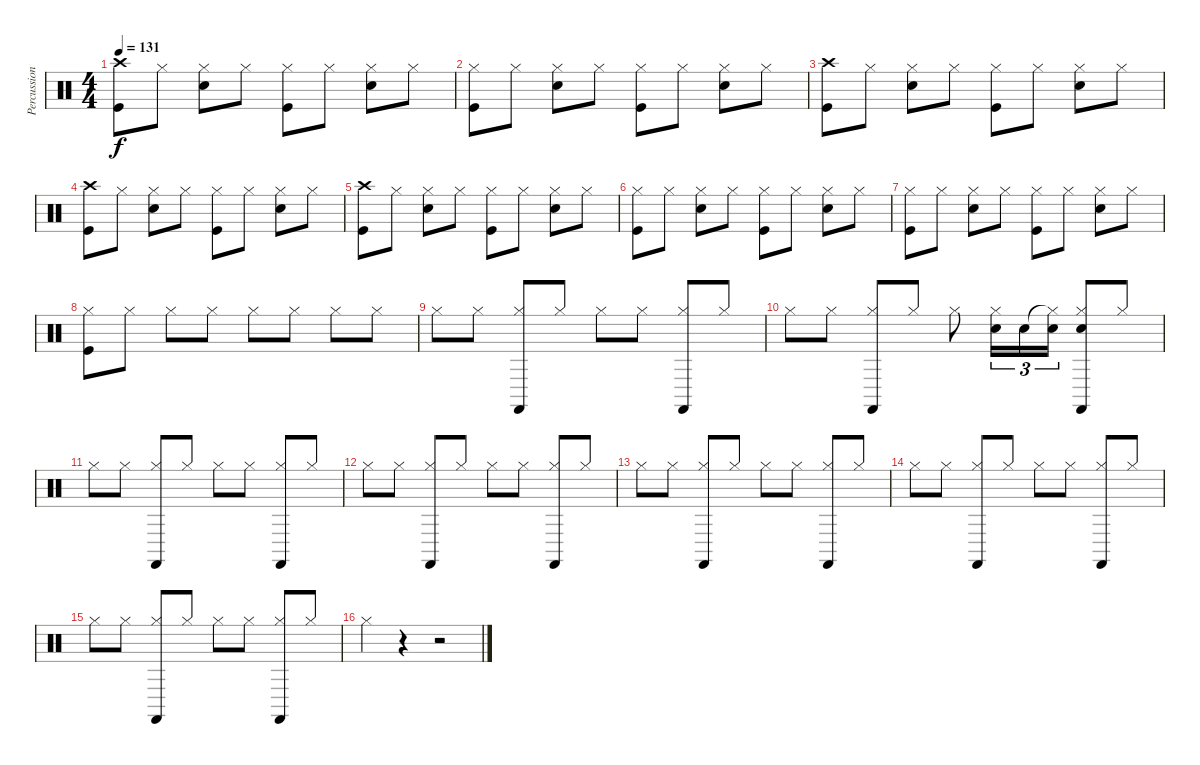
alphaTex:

\track ("Percussion" "Percussion") {instrument percussion}
\staff {score}
\articulation defaults
\ts (4 4)
\tempo 131
\clef neutral
\ks c
("Crash high (hit)" "Kick (hit)").8{dy f} "Hi-Hat (closed)".8 ("Hi-Hat (closed)" "Snare (hit) 2").8 "Hi-Hat (closed)".8 ("Hi-Hat (closed)" "Kick (hit)").8 "Hi-Hat (closed)".8 ("Hi-Hat (closed)" "Snare (hit) 2").8 "Hi-Hat (closed)".8 |
("Hi-Hat (closed)" "Kick (hit)").8 "Hi-Hat (closed)".8 ("Hi-Hat (closed)" "Snare (hit) 2").8 "Hi-Hat (closed)".8 ("Hi-Hat (closed)" "Kick (hit)").8 "Hi-Hat (closed)".8 ("Hi-Hat (closed)" "Snare (hit) 2").8 "Hi-Hat (closed)".8 |
("Crash high (hit)" "Kick (hit)").8 "Hi-Hat (closed)".8 ("Hi-Hat (closed)" "Snare (hit) 2").8 "Hi-Hat (closed)".8 ("Hi-Hat (closed)" "Kick (hit)").8 "Hi-Hat (closed)".8 ("Hi-Hat (closed)" "Snare (hit) 2").8 "Hi-Hat (closed)".8 |
("Crash high (hit)" "Kick (hit)").8 "Hi-Hat (closed)".8 ("Hi-Hat (closed)" "Snare (hit) 2").8 "Hi-Hat (closed)".8 ("Hi-Hat (closed)" "Kick (hit)").8 "Hi-Hat (closed)".8 ("Hi-Hat (closed)" "Snare (hit) 2").8 "Hi-Hat (closed)".8 |
("Crash high (hit)" "Kick (hit)").8 "Hi-Hat (closed)".8 ("Hi-Hat (closed)" "Snare (hit) 2").8 "Hi-Hat (closed)".8 ("Hi-Hat (closed)" "Kick (hit)").8 "Hi-Hat (closed)".8 ("Hi-Hat (closed)" "Snare (hit) 2").8 "Hi-Hat (closed)".8 |
("Hi-Hat (closed)" "Kick (hit)").8 "Hi-Hat (closed)".8 ("Hi-Hat (closed)" "Snare (hit) 2").8 "Hi-Hat (closed)".8 ("Hi-Hat (closed)" "Kick (hit)").8 "Hi-Hat (closed)".8 ("Hi-Hat (closed)" "Snare (hit) 2").8 "Hi-Hat (closed)".8 |
("Hi-Hat (closed)" "Kick (hit)").8 "Hi-Hat (closed)".8 ("Hi-Hat (closed)" "Snare (hit) 2").8 "Hi-Hat (closed)".8 ("Hi-Hat (closed)" "Kick (hit)").8 "Hi-Hat (closed)".8 ("Hi-Hat (closed)" "Snare (hit) 2").8 "Hi-Hat (closed)".8 |
("Hi-Hat (closed)" "Kick (hit)").8 "Hi-Hat (closed)".8 "Hi-Hat (closed)".8 "Hi-Hat (closed)".8 "Hi-Hat (closed)".8 "Hi-Hat (closed)".8 "Hi-Hat (closed)".8 "Hi-Hat (closed)".8 |
"Hi-Hat (closed)".8 "Hi-Hat (closed)".8 ("Hi-Hat (closed)" "Castanets (hit)").8 "Hi-Hat (closed)".8 "Hi-Hat (closed)".8 "Hi-Hat (closed)".8 ("Hi-Hat (closed)" "Castanets (hit)").8 "Hi-Hat (closed)".8 |
"Hi-Hat (closed)".8 "Hi-Hat (closed)".8 ("Hi-Hat (closed)" "Castanets (hit)").8 "Hi-Hat (closed)".8 "Hi-Hat (closed)".8 ("Hi-Hat (closed)" "Snare (hit) 2").16{tu (3 2)} "Snare (hit) 2".16{tu (3 2)} ("Hi-Hat (closed)"{t} "Snare (hit) 2").16{tu (3 2)} ("Hi-Hat (closed)" "Snare (hit) 2" "Castanets (hit)").8 "Hi-Hat (closed)".8 |
"Hi-Hat (closed)".8 "Hi-Hat (closed)".8 ("Hi-Hat (closed)" "Castanets (hit)").8 "Hi-Hat (closed)".8 "Hi-Hat (closed)".8 "Hi-Hat (closed)".8 ("Hi-Hat (closed)" "Castanets (hit)").8 "Hi-Hat (closed)".8 |
"Hi-Hat (closed)".8 "Hi-Hat (closed)".8 ("Hi-Hat (closed)" "Castanets (hit)").8 "Hi-Hat (closed)".8 "Hi-Hat (closed)".8 "Hi-Hat (closed)".8 ("Hi-Hat (closed)" "Castanets (hit)").8 "Hi-Hat (closed)".8 |
"Hi-Hat (closed)".8 "Hi-Hat (closed)".8 ("Hi-Hat (closed)" "Castanets (hit)").8 "Hi-Hat (closed)".8 "Hi-Hat (closed)".8 "Hi-Hat (closed)".8 ("Hi-Hat (closed)" "Castanets (hit)").8 "Hi-Hat (closed)".8 |
"Hi-Hat (closed)".8 "Hi-Hat (closed)".8 ("Hi-Hat (closed)" "Castanets (hit)").8 "Hi-Hat (closed)".8 "Hi-Hat (closed)".8 "Hi-Hat (closed)".8 ("Hi-Hat (closed)" "Castanets (hit)").8 "Hi-Hat (closed)".8 |
"Hi-Hat (closed)".8 "Hi-Hat (closed)".8 ("Hi-Hat (closed)" "Castanets (hit)").8 "Hi-Hat (closed)".8 "Hi-Hat (closed)".8 "Hi-Hat (closed)".8 ("Hi-Hat (closed)" "Castanets (hit)").8 "Hi-Hat (closed)".8 |
"Hi-Hat (closed)".4 r.4 r.2
